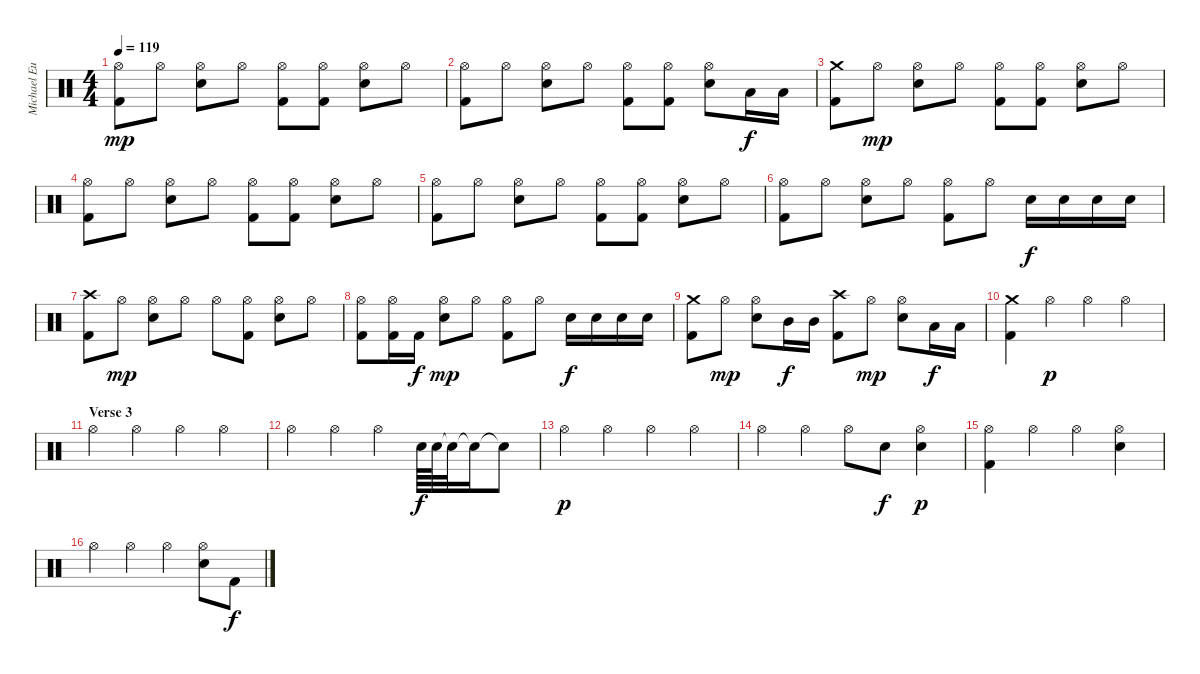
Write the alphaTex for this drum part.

\track ("Michael Eurich" "Michael Eu") {instrument percussion}
\staff {score}
\articulation defaults
\ts (4 4)
\tempo 119
\clef neutral
\ks c
("Kick (hit) 2" "Hi-Hat (open)").8{dy mp} "Hi-Hat (open)".8 ("Hi-Hat (open)" "Snare (hit) 2").8 "Hi-Hat (open)".8 ("Kick (hit) 2" "Hi-Hat (open)").8 ("Kick (hit) 2" "Hi-Hat (open)").8 ("Hi-Hat (open)" "Snare (hit) 2").8 "Hi-Hat (open)".8 |
("Kick (hit) 2" "Hi-Hat (open)").8 "Hi-Hat (open)".8 ("Hi-Hat (open)" "Snare (hit) 2").8 "Hi-Hat (open)".8 ("Kick (hit) 2" "Hi-Hat (open)").8 ("Kick (hit) 2" "Hi-Hat (open)").8 ("Hi-Hat (open)" "Snare (hit) 2").8 "Low Tom (hit)".16{dy f} "Low Tom (hit)".16 |
("Kick (hit) 2" "Crash medium (hit)").8 "Hi-Hat (open)".8{dy mp} ("Hi-Hat (open)" "Snare (hit) 2").8 "Hi-Hat (open)".8 ("Kick (hit) 2" "Hi-Hat (open)").8 ("Kick (hit) 2" "Hi-Hat (open)").8 ("Hi-Hat (open)" "Snare (hit) 2").8 "Hi-Hat (open)".8 |
("Kick (hit) 2" "Hi-Hat (open)").8 "Hi-Hat (open)".8 ("Hi-Hat (open)" "Snare (hit) 2").8 "Hi-Hat (open)".8 ("Kick (hit) 2" "Hi-Hat (open)").8 ("Kick (hit) 2" "Hi-Hat (open)").8 ("Hi-Hat (open)" "Snare (hit) 2").8 "Hi-Hat (open)".8 |
("Kick (hit) 2" "Hi-Hat (open)").8 "Hi-Hat (open)".8 ("Hi-Hat (open)" "Snare (hit) 2").8 "Hi-Hat (open)".8 ("Kick (hit) 2" "Hi-Hat (open)").8 ("Kick (hit) 2" "Hi-Hat (open)").8 ("Hi-Hat (open)" "Snare (hit) 2").8 "Hi-Hat (open)".8 |
("Kick (hit) 2" "Hi-Hat (open)").8 "Hi-Hat (open)".8 ("Hi-Hat (open)" "Snare (hit) 2").8 "Hi-Hat (open)".8 ("Kick (hit) 2" "Hi-Hat (open)").8 "Hi-Hat (open)".8 "Snare (hit) 2".16{dy f} "Snare (hit) 2".16 "Snare (hit) 2".16 "Snare (hit) 2".16 |
("Kick (hit) 2" "Crash high (hit)").8 "Hi-Hat (open)".8{dy mp} ("Hi-Hat (open)" "Snare (hit) 2").8 "Hi-Hat (open)".8 "Hi-Hat (open)".8 ("Kick (hit) 2" "Hi-Hat (open)").8 ("Hi-Hat (open)" "Snare (hit) 2").8 "Hi-Hat (open)".8 |
("Kick (hit) 2" "Hi-Hat (open)").8 ("Kick (hit) 2" "Hi-Hat (open)").16 "Kick (hit) 2".16{dy f} ("Hi-Hat (open)" "Snare (hit) 2").8{dy mp} "Hi-Hat (open)".8 ("Kick (hit) 2" "Hi-Hat (open)").8 "Hi-Hat (open)".8 "Snare (hit) 2".16{dy f} "Snare (hit) 2".16 "Snare (hit) 2".16 "Snare (hit) 2".16 |
("Kick (hit) 2" "Crash medium (hit)").8 "Hi-Hat (open)".8{dy mp} ("Hi-Hat (open)" "Snare (hit) 2").8 "Mid Tom (hit)".16{dy f} "Mid Tom (hit)".16 ("Kick (hit) 2" "Crash high (hit)").8 "Hi-Hat (open)".8{dy mp} ("Hi-Hat (open)" "Snare (hit) 2").8 "Low Tom (hit)".16{dy f} "Low Tom (hit)".16 |
("Kick (hit) 2" "Crash medium (hit)").4 "Hi-Hat (open)".4{dy p} "Hi-Hat (open)".4 "Hi-Hat (open)".4 |
\section ("" "Verse 3")
"Hi-Hat (open)".4 "Hi-Hat (open)".4 "Hi-Hat (open)".4 "Hi-Hat (open)".4 |
"Hi-Hat (open)".4 "Hi-Hat (open)".4 "Hi-Hat (open)".4 "Snare (hit) 2".64{dy f} "Snare (hit) 2".64 "Snare (hit)"{t}.32 "Snare (hit)"{t}.16 "Snare (hit)"{t}.8 |
"Hi-Hat (open)".4{dy p} "Hi-Hat (open)".4 "Hi-Hat (open)".4 "Hi-Hat (open)".4 |
"Hi-Hat (open)".4 "Hi-Hat (open)".4 "Hi-Hat (open)".8 "Snare (hit) 2".8{dy f} ("Hi-Hat (open)" "Snare (hit) 2").4{dy p} |
("Kick (hit) 2" "Hi-Hat (open)").4 "Hi-Hat (open)".4 "Hi-Hat (open)".4 ("Hi-Hat (open)" "Snare (hit) 2").4 |
"Hi-Hat (open)".4 "Hi-Hat (open)".4 "Hi-Hat (open)".4 ("Hi-Hat (open)" "Snare (hit) 2").8 "Kick (hit) 2".8{dy f}
